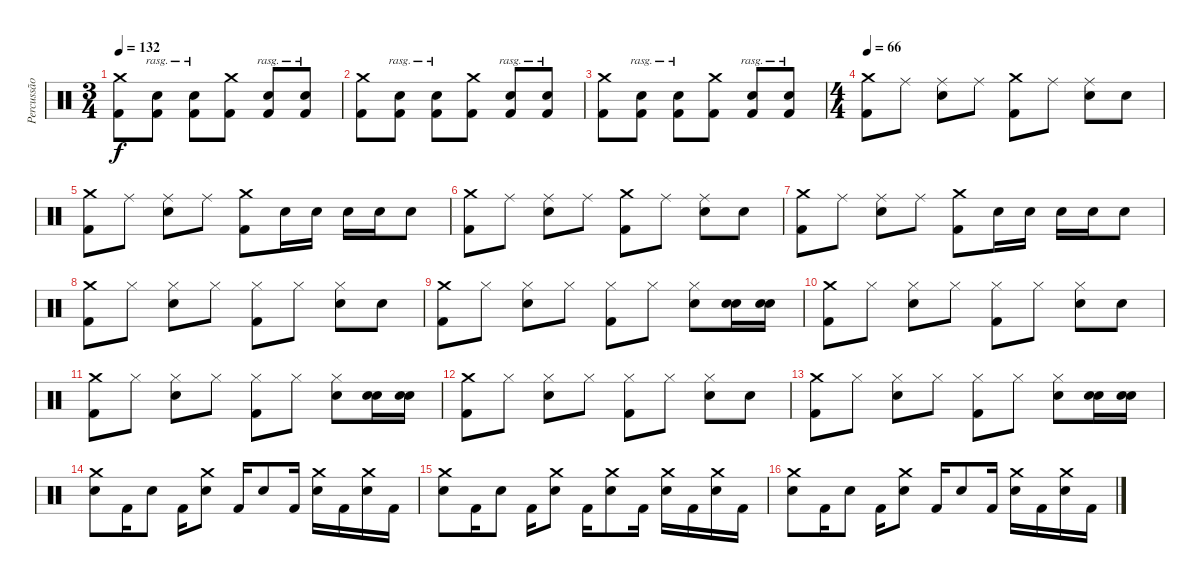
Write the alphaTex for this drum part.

\track ("Percussão" "Percussão") {instrument percussion}
\staff {score}
\articulation defaults
\ts (3 4)
\tempo 132
\clef neutral
\ks c
("Crash medium (hit)" "Kick (hit) 2").8{dy f} ("Snare (hit) 2" "Kick (hit) 2").8{bu 480 rasg ii} ("Snare (hit) 2" "Kick (hit) 2").8{bu 480 rasg ii} ("Crash medium (hit)" "Kick (hit) 2").8 ("Snare (hit) 2" "Kick (hit) 2").8{bu 480 rasg ii} ("Snare (hit) 2" "Kick (hit) 2").8{bu 480 rasg ii} |
("Crash medium (hit)" "Kick (hit) 2").8 ("Snare (hit) 2" "Kick (hit) 2").8{bu 480 rasg ii} ("Snare (hit) 2" "Kick (hit) 2").8{bu 480 rasg ii} ("Crash medium (hit)" "Kick (hit) 2").8 ("Snare (hit) 2" "Kick (hit) 2").8{bu 480 rasg ii} ("Snare (hit) 2" "Kick (hit) 2").8{bu 480 rasg ii} |
("Crash medium (hit)" "Kick (hit) 2").8 ("Snare (hit) 2" "Kick (hit) 2").8{bu 480 rasg ii} ("Snare (hit) 2" "Kick (hit) 2").8{bu 480 rasg ii} ("Crash medium (hit)" "Kick (hit) 2").8 ("Snare (hit) 2" "Kick (hit) 2").8{bu 480 rasg ii} ("Snare (hit) 2" "Kick (hit) 2").8{bu 480 rasg ii} |
\ts (4 4)
\tempo 66
("Crash medium (hit)" "Kick (hit) 2").8 "Ride (middle)".8 ("Ride (middle)" "Snare (hit) 2").8 "Ride (middle)".8 ("Crash medium (hit)" "Kick (hit) 2").8 "Ride (middle)".8 ("Ride (middle)" "Snare (hit) 2").8 "Snare (hit) 2".8 |
("Crash medium (hit)" "Kick (hit) 2").8 "Ride (middle)".8 ("Ride (middle)" "Snare (hit) 2").8 "Ride (middle)".8 ("Crash medium (hit)" "Kick (hit) 2").8 "Snare (hit) 2".16 "Snare (hit) 2".16 "Snare (hit) 2".16 "Snare (hit) 2".16 "Snare (hit) 2".8 |
("Crash medium (hit)" "Kick (hit) 2").8 "Ride (middle)".8 ("Ride (middle)" "Snare (hit) 2").8 "Ride (middle)".8 ("Crash medium (hit)" "Kick (hit) 2").8 "Ride (middle)".8 ("Ride (middle)" "Snare (hit) 2").8 "Snare (hit) 2".8 |
("Crash medium (hit)" "Kick (hit) 2").8 "Ride (middle)".8 ("Ride (middle)" "Snare (hit) 2").8 "Ride (middle)".8 ("Crash medium (hit)" "Kick (hit) 2").8 "Snare (hit) 2".16 "Snare (hit) 2".16 "Snare (hit) 2".16 "Snare (hit) 2".16 "Snare (hit) 2".8 |
("Crash medium (hit)" "Kick (hit) 2").8 "Hi-Hat (closed)".8 ("Hi-Hat (closed)" "Snare (hit) 2").8 "Hi-Hat (closed)".8 ("Hi-Hat (closed)" "Kick (hit) 2").8 "Hi-Hat (closed)".8 ("Hi-Hat (closed)" "Snare (hit) 2").8 "Snare (hit) 2".8 |
("Crash medium (hit)" "Kick (hit) 2").8 "Hi-Hat (closed)".8 ("Hi-Hat (closed)" "Snare (hit) 2").8 "Hi-Hat (closed)".8 ("Hi-Hat (closed)" "Kick (hit) 2").8 "Hi-Hat (closed)".8 ("Hi-Hat (closed)" "Snare (hit) 2").8 ("Snare (hit) 2" "Snare (hit) 2").16{bu 240} ("Snare (hit) 2" "Snare (hit) 2").16{bu 240} |
("Crash medium (hit)" "Kick (hit) 2").8 "Hi-Hat (closed)".8 ("Hi-Hat (closed)" "Snare (hit) 2").8 "Hi-Hat (closed)".8 ("Hi-Hat (closed)" "Kick (hit) 2").8 "Hi-Hat (closed)".8 ("Hi-Hat (closed)" "Snare (hit) 2").8 "Snare (hit) 2".8 |
("Crash medium (hit)" "Kick (hit) 2").8 "Hi-Hat (closed)".8 ("Hi-Hat (closed)" "Snare (hit) 2").8 "Hi-Hat (closed)".8 ("Hi-Hat (closed)" "Kick (hit) 2").8 "Hi-Hat (closed)".8 ("Hi-Hat (closed)" "Snare (hit) 2").8 ("Snare (hit) 2" "Snare (hit) 2").16{bu 240} ("Snare (hit) 2" "Snare (hit) 2").16{bu 240} |
("Crash medium (hit)" "Kick (hit) 2").8 "Hi-Hat (closed)".8 ("Hi-Hat (closed)" "Snare (hit) 2").8 "Hi-Hat (closed)".8 ("Hi-Hat (closed)" "Kick (hit) 2").8 "Hi-Hat (closed)".8 ("Hi-Hat (closed)" "Snare (hit) 2").8 "Snare (hit) 2".8 |
("Crash medium (hit)" "Kick (hit) 2").8 "Hi-Hat (closed)".8 ("Hi-Hat (closed)" "Snare (hit) 2").8 "Hi-Hat (closed)".8 ("Hi-Hat (closed)" "Kick (hit) 2").8 "Hi-Hat (closed)".8 ("Hi-Hat (closed)" "Snare (hit) 2").8 ("Snare (hit) 2" "Snare (hit) 2").16{bu 240} ("Snare (hit) 2" "Snare (hit) 2").16{bu 240} |
("Crash medium (hit)" "Snare (hit) 2").8 "Kick (hit) 2".16 "Snare (hit) 2".8 "Kick (hit) 2".16 ("Crash medium (hit)" "Snare (hit) 2").8 "Kick (hit) 2".16 "Snare (hit) 2".8 "Kick (hit) 2".16 ("Crash medium (hit)" "Snare (hit) 2").16 "Kick (hit) 2".16 ("Crash medium (hit)" "Snare (hit) 2").16 "Kick (hit) 2".16 |
("Crash medium (hit)" "Snare (hit) 2").8 "Kick (hit) 2".16 "Snare (hit) 2".8 "Kick (hit) 2".16 ("Crash medium (hit)" "Snare (hit) 2").8 "Kick (hit) 2".16 ("Crash medium (hit)" "Snare (hit) 2").8 "Kick (hit) 2".16 ("Crash medium (hit)" "Snare (hit) 2").16 "Kick (hit) 2".16 ("Crash medium (hit)" "Snare (hit) 2").16 "Kick (hit) 2".16 |
("Crash medium (hit)" "Snare (hit) 2").8 "Kick (hit) 2".16 "Snare (hit) 2".8 "Kick (hit) 2".16 ("Crash medium (hit)" "Snare (hit) 2").8 "Kick (hit) 2".16 "Snare (hit) 2".8 "Kick (hit) 2".16 ("Crash medium (hit)" "Snare (hit) 2").16 "Kick (hit) 2".16 ("Crash medium (hit)" "Snare (hit) 2").16 "Kick (hit) 2".16
